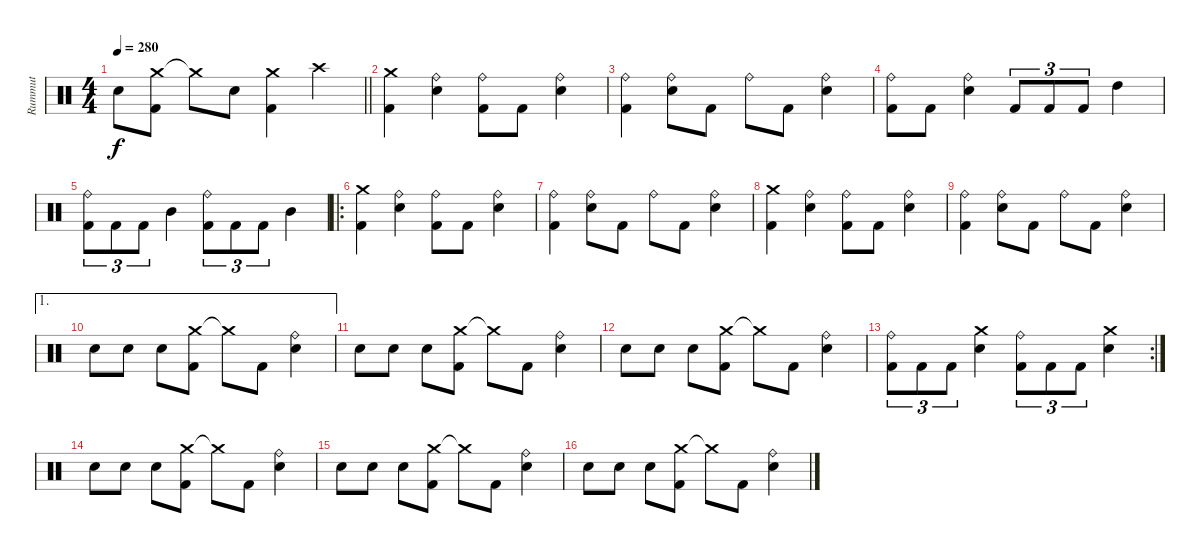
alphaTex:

\track ("Rummut" "Rummut") {instrument percussion}
\staff {score}
\articulation defaults
\ts (4 4)
\tempo 280
\clef neutral
\barLineRight lightlight
\ks c "Snare (hit) 2".8{dy f}
("Crash medium (hit)" "Kick (hit) 2").8 "Crash medium (hit)"{t}.8 "Snare (hit) 2".8 ("Crash medium (hit)" "Kick (hit) 2").4 "Crash high (hit)".4 |
("Crash medium (hit)" "Kick (hit) 2").4 ("Ride (bell)" "Snare (hit) 2").4 ("Ride (bell)" "Kick (hit) 2").8 "Kick (hit) 2".8 ("Ride (bell)" "Snare (hit) 2").4 |
("Ride (bell)" "Kick (hit) 2").4 ("Ride (bell)" "Snare (hit) 2").8 "Kick (hit) 2".8 "Ride (bell)".8 "Kick (hit) 2".8 ("Ride (bell)" "Snare (hit) 2").4 |
("Ride (bell)" "Kick (hit) 2").8 "Kick (hit) 2".8 ("Ride (bell)" "Snare (hit) 2").4 "Kick (hit) 2".8{tu (3 2)} "Kick (hit) 2".8{tu (3 2)} "Kick (hit) 2".8{tu (3 2)} "High Tom (hit)".4 |
("Ride (bell)" "Kick (hit) 2").8{tu (3 2)} "Kick (hit) 2".8{tu (3 2)} "Kick (hit) 2".8{tu (3 2)} "Mid Tom (hit)".4 ("Ride (bell)" "Kick (hit) 2").8{tu (3 2)} "Kick (hit) 2".8{tu (3 2)} "Kick (hit) 2".8{tu (3 2)} "Mid Tom (hit)".4 |
\ro
("Crash medium (hit)" "Kick (hit) 2").4 ("Ride (bell)" "Snare (hit) 2").4 ("Ride (bell)" "Kick (hit) 2").8 "Kick (hit) 2".8 ("Ride (bell)" "Snare (hit) 2").4 |
("Ride (bell)" "Kick (hit) 2").4 ("Ride (bell)" "Snare (hit) 2").8 "Kick (hit) 2".8 "Ride (bell)".8 "Kick (hit) 2".8 ("Ride (bell)" "Snare (hit) 2").4 |
("Crash medium (hit)" "Kick (hit) 2").4 ("Ride (bell)" "Snare (hit) 2").4 ("Ride (bell)" "Kick (hit) 2").8 "Kick (hit) 2".8 ("Ride (bell)" "Snare (hit) 2").4 |
("Ride (bell)" "Kick (hit) 2").4 ("Ride (bell)" "Snare (hit) 2").8 "Kick (hit) 2".8 "Ride (bell)".8 "Kick (hit) 2".8 ("Ride (bell)" "Snare (hit) 2").4 |
\ae 1 "Snare (hit) 2".8 "Snare (hit) 2".8 "Snare (hit) 2".8
("Crash medium (hit)" "Kick (hit) 2").8 "Crash medium (hit)"{t}.8 "Kick (hit) 2".8 ("Ride (bell)" "Snare (hit) 2").4 |
"Snare (hit) 2".8 "Snare (hit) 2".8 "Snare (hit) 2".8 ("Crash medium (hit)" "Kick (hit) 2").8 "Crash medium (hit)"{t}.8 "Kick (hit) 2".8 ("Ride (bell)" "Snare (hit) 2").4 |
"Snare (hit) 2".8 "Snare (hit) 2".8 "Snare (hit) 2".8 ("Crash medium (hit)" "Kick (hit) 2").8 "Crash medium (hit)"{t}.8 "Kick (hit) 2".8 ("Ride (bell)" "Snare (hit) 2").4 |
\rc 2
("Ride (bell)" "Kick (hit) 2").8{tu (3 2)} "Kick (hit) 2".8{tu (3 2)} "Kick (hit) 2".8{tu (3 2)} ("Crash medium (hit)" "Snare (hit) 2").4 ("Ride (bell)" "Kick (hit) 2").8{tu (3 2)} "Kick (hit) 2".8{tu (3 2)} "Kick (hit) 2".8{tu (3 2)} ("Crash medium (hit)" "Snare (hit) 2").4 |
"Snare (hit) 2".8 "Snare (hit) 2".8 "Snare (hit) 2".8 ("Crash medium (hit)" "Kick (hit) 2").8 "Crash medium (hit)"{t}.8 "Kick (hit) 2".8 ("Ride (bell)" "Snare (hit) 2").4 |
"Snare (hit) 2".8 "Snare (hit) 2".8 "Snare (hit) 2".8 ("Crash medium (hit)" "Kick (hit) 2").8 "Crash medium (hit)"{t}.8 "Kick (hit) 2".8 ("Ride (bell)" "Snare (hit) 2").4 |
"Snare (hit) 2".8 "Snare (hit) 2".8 "Snare (hit) 2".8 ("Crash medium (hit)" "Kick (hit) 2").8 "Crash medium (hit)"{t}.8 "Kick (hit) 2".8 ("Ride (bell)" "Snare (hit) 2").4
